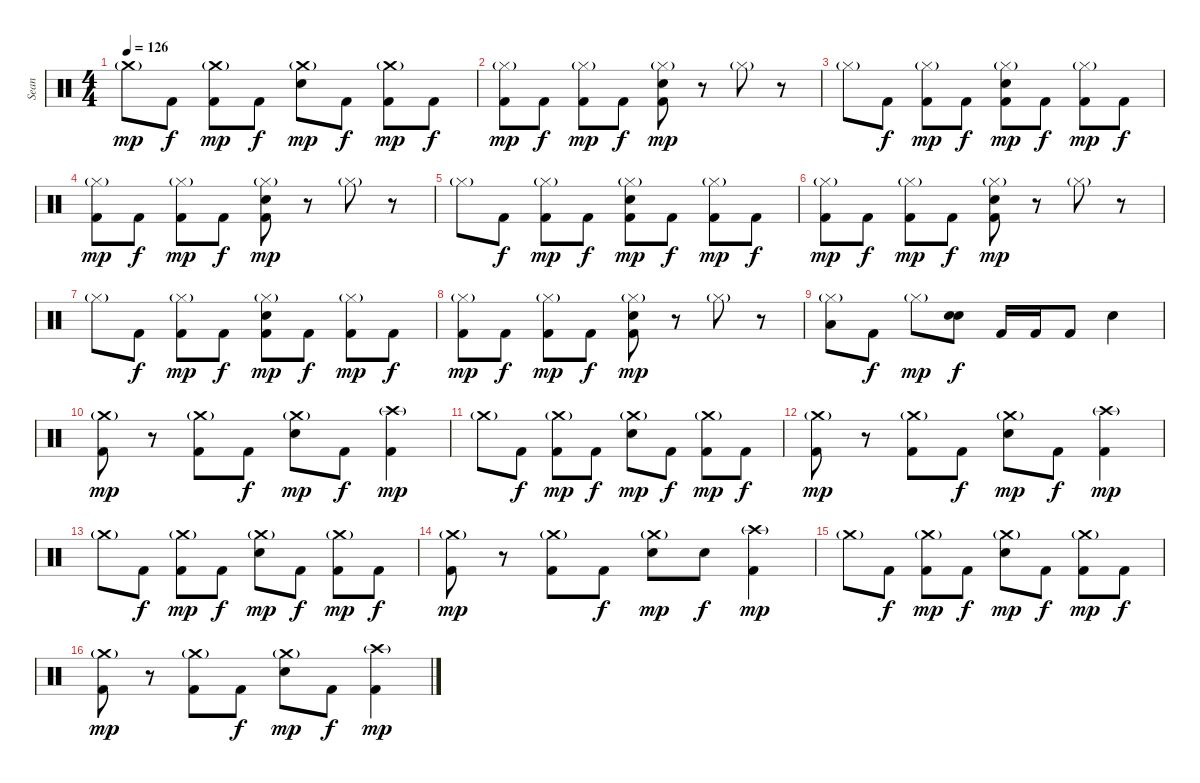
\track ("Sean" "Sean") {instrument percussion}
\staff {score}
\articulation defaults
\ts (4 4)
\tempo 126
\clef neutral
\ks c "Crash medium (hit)"{g}.8{dy mp} "Kick (hit) 2".8{dy f}
("Crash medium (hit)"{g} "Kick (hit) 2").8{dy mp} "Kick (hit) 2".8{dy f} ("Crash medium (hit)"{g} "Electric Snare (hit)").8{dy mp} "Kick (hit) 2".8{dy f} ("Crash medium (hit)"{g} "Kick (hit) 2").8{dy mp} "Kick (hit) 2".8{dy f} |
("Hi-Hat (closed)"{g} "Kick (hit) 2").8{dy mp} "Kick (hit) 2".8{dy f} ("Hi-Hat (closed)"{g} "Kick (hit) 2").8{dy mp} "Kick (hit) 2".8{dy f} ("Hi-Hat (closed)"{g} "Electric Snare (hit)" "Kick (hit) 2").8{dy mp} r.8 "Hi-Hat (closed)"{g}.8 r.8 |
"Hi-Hat (closed)"{g}.8 "Kick (hit) 2".8{dy f} ("Hi-Hat (closed)"{g} "Kick (hit) 2").8{dy mp} "Kick (hit) 2".8{dy f} ("Hi-Hat (closed)"{g} "Electric Snare (hit)" "Kick (hit) 2").8{dy mp} "Kick (hit) 2".8{dy f} ("Hi-Hat (closed)"{g} "Kick (hit) 2").8{dy mp} "Kick (hit) 2".8{dy f} |
("Hi-Hat (closed)"{g} "Kick (hit) 2").8{dy mp} "Kick (hit) 2".8{dy f} ("Hi-Hat (closed)"{g} "Kick (hit) 2").8{dy mp} "Kick (hit) 2".8{dy f} ("Hi-Hat (closed)"{g} "Electric Snare (hit)" "Kick (hit) 2").8{dy mp} r.8 "Hi-Hat (closed)"{g}.8 r.8 |
"Hi-Hat (closed)"{g}.8 "Kick (hit) 2".8{dy f} ("Hi-Hat (closed)"{g} "Kick (hit) 2").8{dy mp} "Kick (hit) 2".8{dy f} ("Hi-Hat (closed)"{g} "Electric Snare (hit)" "Kick (hit) 2").8{dy mp} "Kick (hit) 2".8{dy f} ("Hi-Hat (closed)"{g} "Kick (hit) 2").8{dy mp} "Kick (hit) 2".8{dy f} |
("Hi-Hat (closed)"{g} "Kick (hit) 2").8{dy mp} "Kick (hit) 2".8{dy f} ("Hi-Hat (closed)"{g} "Kick (hit) 2").8{dy mp} "Kick (hit) 2".8{dy f} ("Hi-Hat (closed)"{g} "Electric Snare (hit)" "Kick (hit) 2").8{dy mp} r.8 "Hi-Hat (closed)"{g}.8 r.8 |
"Hi-Hat (closed)"{g}.8 "Kick (hit) 2".8{dy f} ("Hi-Hat (closed)"{g} "Kick (hit) 2").8{dy mp} "Kick (hit) 2".8{dy f} ("Hi-Hat (closed)"{g} "Electric Snare (hit)" "Kick (hit) 2").8{dy mp} "Kick (hit) 2".8{dy f} ("Hi-Hat (closed)"{g} "Kick (hit) 2").8{dy mp} "Kick (hit) 2".8{dy f} |
("Hi-Hat (closed)"{g} "Kick (hit) 2").8{dy mp} "Kick (hit) 2".8{dy f} ("Hi-Hat (closed)"{g} "Kick (hit) 2").8{dy mp} "Kick (hit) 2".8{dy f} ("Hi-Hat (closed)"{g} "Electric Snare (hit)" "Kick (hit) 2").8{dy mp} r.8 "Hi-Hat (closed)"{g}.8 r.8 |
("Hi-Hat (closed)"{g} "Low Tom (hit)").8 "Kick (hit) 2".8{dy f} "Hi-Hat (closed)"{g}.8{dy mp} ("Electric Snare (hit)" "Electric Snare (hit)").8{bd 480 dy f} "Kick (hit) 2".16 "Kick (hit) 2".16 "Kick (hit) 2".8 "Electric Snare (hit)".4 |
("Crash medium (hit)"{g} "Kick (hit) 2").8{dy mp} r.8 ("Crash medium (hit)"{g} "Kick (hit) 2").8 "Kick (hit) 2".8{dy f} ("Crash medium (hit)"{g} "Electric Snare (hit)").8{dy mp} "Kick (hit) 2".8{dy f} ("Crash high (hit)"{g} "Kick (hit) 2").4{dy mp} |
"Crash medium (hit)"{g}.8 "Kick (hit) 2".8{dy f} ("Crash medium (hit)"{g} "Kick (hit) 2").8{dy mp} "Kick (hit) 2".8{dy f} ("Crash medium (hit)"{g} "Electric Snare (hit)").8{dy mp} "Kick (hit) 2".8{dy f} ("Crash medium (hit)"{g} "Kick (hit) 2").8{dy mp} "Kick (hit) 2".8{dy f} |
("Crash medium (hit)"{g} "Kick (hit) 2").8{dy mp} r.8 ("Crash medium (hit)"{g} "Kick (hit) 2").8 "Kick (hit) 2".8{dy f} ("Crash medium (hit)"{g} "Electric Snare (hit)").8{dy mp} "Kick (hit) 2".8{dy f} ("Crash high (hit)"{g} "Kick (hit) 2").4{dy mp} |
"Crash medium (hit)"{g}.8 "Kick (hit) 2".8{dy f} ("Crash medium (hit)"{g} "Kick (hit) 2").8{dy mp} "Kick (hit) 2".8{dy f} ("Crash medium (hit)"{g} "Electric Snare (hit)").8{dy mp} "Kick (hit) 2".8{dy f} ("Crash medium (hit)"{g} "Kick (hit) 2").8{dy mp} "Kick (hit) 2".8{dy f} |
("Crash medium (hit)"{g} "Kick (hit) 2").8{dy mp} r.8 ("Crash medium (hit)"{g} "Kick (hit) 2").8 "Kick (hit) 2".8{dy f} ("Crash medium (hit)"{g} "Electric Snare (hit)").8{dy mp} "Electric Snare (hit)".8{dy f} ("Crash high (hit)"{g} "Kick (hit) 2").4{dy mp} |
"Crash medium (hit)"{g}.8 "Kick (hit) 2".8{dy f} ("Crash medium (hit)"{g} "Kick (hit) 2").8{dy mp} "Kick (hit) 2".8{dy f} ("Crash medium (hit)"{g} "Electric Snare (hit)").8{dy mp} "Kick (hit) 2".8{dy f} ("Crash medium (hit)"{g} "Kick (hit) 2").8{dy mp} "Kick (hit) 2".8{dy f} |
("Crash medium (hit)"{g} "Kick (hit) 2").8{dy mp} r.8 ("Crash medium (hit)"{g} "Kick (hit) 2").8 "Kick (hit) 2".8{dy f} ("Crash medium (hit)"{g} "Electric Snare (hit)").8{dy mp} "Kick (hit) 2".8{dy f} ("Crash high (hit)"{g} "Kick (hit) 2").4{dy mp}
